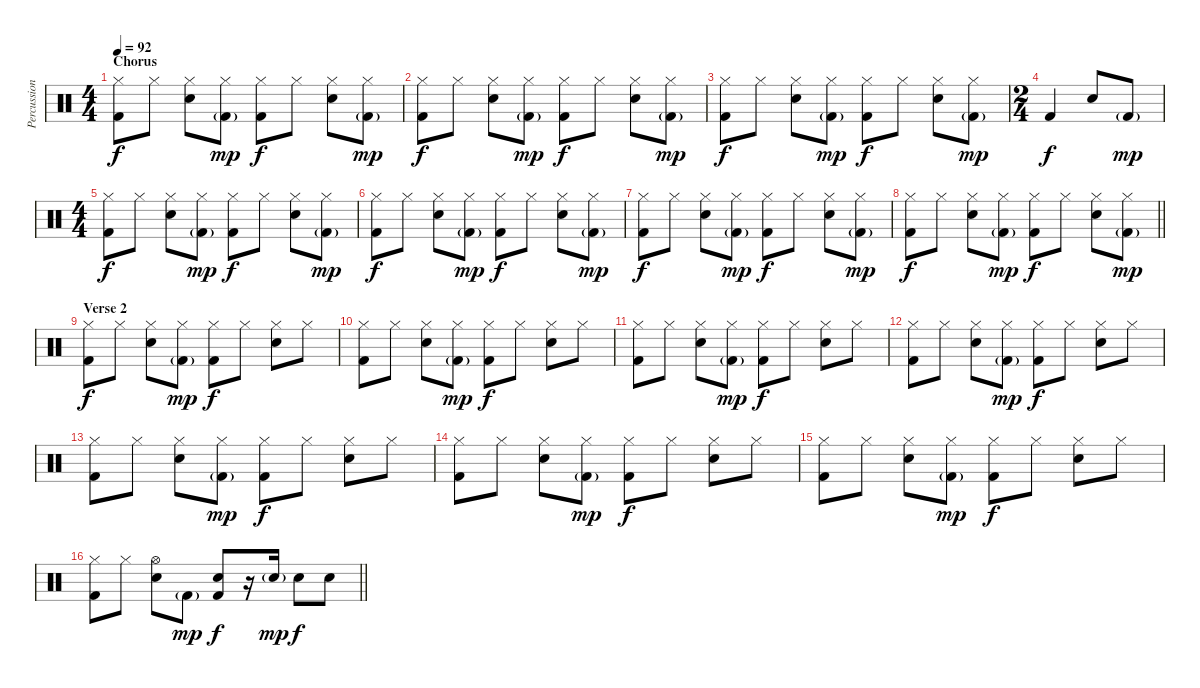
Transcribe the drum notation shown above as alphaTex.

\track ("Percussion" "Percussion") {instrument percussion}
\staff {score}
\articulation defaults
\ts (4 4)
\section ("" "Chorus")
\tempo 92
\clef neutral
\ks c
("Hi-Hat (closed)" "Kick (hit) 2").8{dy f} "Hi-Hat (closed)".8 ("Hi-Hat (closed)" "Snare (hit) 2").8 ("Hi-Hat (closed)" "Kick (hit) 2"{g}).8{dy mp} ("Hi-Hat (closed)" "Kick (hit) 2").8{dy f} "Hi-Hat (closed)".8 ("Hi-Hat (closed)" "Snare (hit) 2").8 ("Hi-Hat (closed)" "Kick (hit) 2"{g}).8{dy mp} |
("Hi-Hat (closed)" "Kick (hit) 2").8{dy f} "Hi-Hat (closed)".8 ("Hi-Hat (closed)" "Snare (hit) 2").8 ("Hi-Hat (closed)" "Kick (hit) 2"{g}).8{dy mp} ("Hi-Hat (closed)" "Kick (hit) 2").8{dy f} "Hi-Hat (closed)".8 ("Hi-Hat (closed)" "Snare (hit) 2").8 ("Hi-Hat (closed)" "Kick (hit) 2"{g}).8{dy mp} |
("Hi-Hat (closed)" "Kick (hit) 2").8{dy f} "Hi-Hat (closed)".8 ("Hi-Hat (closed)" "Snare (hit) 2").8 ("Hi-Hat (closed)" "Kick (hit) 2"{g}).8{dy mp} ("Hi-Hat (closed)" "Kick (hit) 2").8{dy f} "Hi-Hat (closed)".8 ("Hi-Hat (closed)" "Snare (hit) 2").8 ("Hi-Hat (closed)" "Kick (hit) 2"{g}).8{dy mp} |
\ts (2 4)
"Kick (hit) 2".4{dy f} "Snare (hit) 2".8 "Kick (hit) 2"{g}.8{dy mp} |
\ts (4 4)
("Hi-Hat (closed)" "Kick (hit) 2").8{dy f} "Hi-Hat (closed)".8 ("Hi-Hat (closed)" "Snare (hit) 2").8 ("Hi-Hat (closed)" "Kick (hit) 2"{g}).8{dy mp} ("Hi-Hat (closed)" "Kick (hit) 2").8{dy f} "Hi-Hat (closed)".8 ("Hi-Hat (closed)" "Snare (hit) 2").8 ("Hi-Hat (closed)" "Kick (hit) 2"{g}).8{dy mp} |
("Hi-Hat (closed)" "Kick (hit) 2").8{dy f} "Hi-Hat (closed)".8 ("Hi-Hat (closed)" "Snare (hit) 2").8 ("Hi-Hat (closed)" "Kick (hit) 2"{g}).8{dy mp} ("Hi-Hat (closed)" "Kick (hit) 2").8{dy f} "Hi-Hat (closed)".8 ("Hi-Hat (closed)" "Snare (hit) 2").8 ("Hi-Hat (closed)" "Kick (hit) 2"{g}).8{dy mp} |
("Hi-Hat (closed)" "Kick (hit) 2").8{dy f} "Hi-Hat (closed)".8 ("Hi-Hat (closed)" "Snare (hit) 2").8 ("Hi-Hat (closed)" "Kick (hit) 2"{g}).8{dy mp} ("Hi-Hat (closed)" "Kick (hit) 2").8{dy f} "Hi-Hat (closed)".8 ("Hi-Hat (closed)" "Snare (hit) 2").8 ("Hi-Hat (closed)" "Kick (hit) 2"{g}).8{dy mp} |
\barLineRight lightlight
("Hi-Hat (closed)" "Kick (hit) 2").8{dy f} "Hi-Hat (closed)".8 ("Hi-Hat (closed)" "Snare (hit) 2").8 ("Hi-Hat (closed)" "Kick (hit) 2"{g}).8{dy mp} ("Hi-Hat (closed)" "Kick (hit) 2").8{dy f} "Hi-Hat (closed)".8 ("Hi-Hat (closed)" "Snare (hit) 2").8 ("Hi-Hat (closed)" "Kick (hit) 2"{g}).8{dy mp} |
\section ("" "Verse 2")
("Hi-Hat (closed)" "Kick (hit) 2").8{dy f} "Hi-Hat (closed)".8 ("Hi-Hat (closed)" "Snare (hit) 2").8 ("Hi-Hat (closed)" "Kick (hit) 2"{g}).8{dy mp} ("Hi-Hat (closed)" "Kick (hit) 2").8{dy f} "Hi-Hat (closed)".8 ("Hi-Hat (closed)" "Snare (hit) 2").8 "Hi-Hat (closed)".8 |
("Hi-Hat (closed)" "Kick (hit) 2").8 "Hi-Hat (closed)".8 ("Hi-Hat (closed)" "Snare (hit) 2").8 ("Hi-Hat (closed)" "Kick (hit) 2"{g}).8{dy mp} ("Hi-Hat (closed)" "Kick (hit) 2").8{dy f} "Hi-Hat (closed)".8 ("Hi-Hat (closed)" "Snare (hit) 2").8 "Hi-Hat (closed)".8 |
("Hi-Hat (closed)" "Kick (hit) 2").8 "Hi-Hat (closed)".8 ("Hi-Hat (closed)" "Snare (hit) 2").8 ("Hi-Hat (closed)" "Kick (hit) 2"{g}).8{dy mp} ("Hi-Hat (closed)" "Kick (hit) 2").8{dy f} "Hi-Hat (closed)".8 ("Hi-Hat (closed)" "Snare (hit) 2").8 "Hi-Hat (closed)".8 |
("Hi-Hat (closed)" "Kick (hit) 2").8 "Hi-Hat (closed)".8 ("Hi-Hat (closed)" "Snare (hit) 2").8 ("Hi-Hat (closed)" "Kick (hit) 2"{g}).8{dy mp} ("Hi-Hat (closed)" "Kick (hit) 2").8{dy f} "Hi-Hat (closed)".8 ("Hi-Hat (closed)" "Snare (hit) 2").8 "Hi-Hat (closed)".8 |
("Hi-Hat (closed)" "Kick (hit) 2").8 "Hi-Hat (closed)".8 ("Hi-Hat (closed)" "Snare (hit) 2").8 ("Hi-Hat (closed)" "Kick (hit) 2"{g}).8{dy mp} ("Hi-Hat (closed)" "Kick (hit) 2").8{dy f} "Hi-Hat (closed)".8 ("Hi-Hat (closed)" "Snare (hit) 2").8 "Hi-Hat (closed)".8 |
("Hi-Hat (closed)" "Kick (hit) 2").8 "Hi-Hat (closed)".8 ("Hi-Hat (closed)" "Snare (hit) 2").8 ("Hi-Hat (closed)" "Kick (hit) 2"{g}).8{dy mp} ("Hi-Hat (closed)" "Kick (hit) 2").8{dy f} "Hi-Hat (closed)".8 ("Hi-Hat (closed)" "Snare (hit) 2").8 "Hi-Hat (closed)".8 |
("Hi-Hat (closed)" "Kick (hit) 2").8 "Hi-Hat (closed)".8 ("Hi-Hat (closed)" "Snare (hit) 2").8 ("Hi-Hat (closed)" "Kick (hit) 2"{g}).8{dy mp} ("Hi-Hat (closed)" "Kick (hit) 2").8{dy f} "Hi-Hat (closed)".8 ("Hi-Hat (closed)" "Snare (hit) 2").8 "Hi-Hat (closed)".8 |
\barLineRight lightlight
("Hi-Hat (closed)" "Kick (hit) 2").8 "Hi-Hat (closed)".8 ("Hi-Hat (open)" "Snare (hit) 2").8 "Kick (hit) 2"{g}.8{dy mp} ("Snare (hit) 2" "Kick (hit) 2").8{dy f} r.16 "Snare (hit) 2"{g}.16{dy mp} "Snare (hit) 2".8{dy f} "Snare (hit) 2".8
